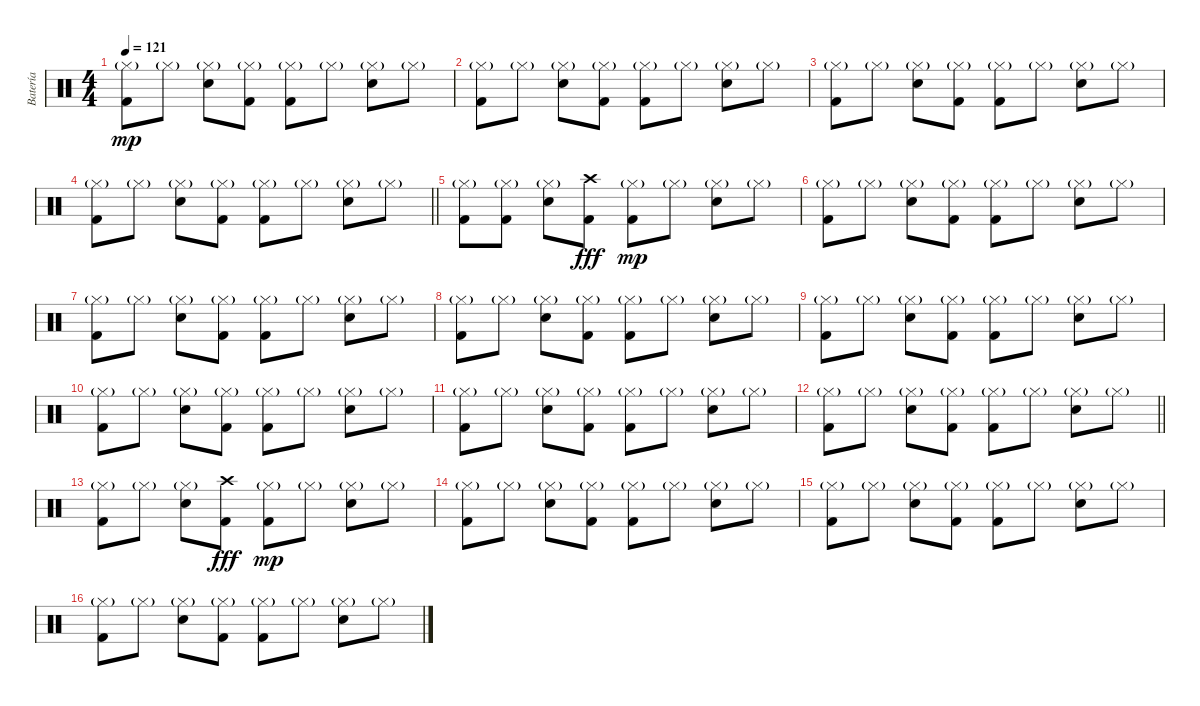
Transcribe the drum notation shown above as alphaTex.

\track ("Batería" "Batería") {instrument percussion}
\staff {score}
\articulation defaults
\ts (4 4)
\tempo 121
\clef neutral
\ks c
("Kick (hit) 2" "Hi-Hat (closed)"{g}).8{dy mp} "Hi-Hat (closed)"{g}.8 ("Snare (hit) 2" "Hi-Hat (closed)"{g}).8 ("Kick (hit) 2" "Hi-Hat (closed)"{g}).8 ("Kick (hit) 2" "Hi-Hat (closed)"{g}).8 "Hi-Hat (closed)"{g}.8 ("Snare (hit) 2" "Hi-Hat (closed)"{g}).8 "Hi-Hat (closed)"{g}.8 |
("Kick (hit) 2" "Hi-Hat (closed)"{g}).8 "Hi-Hat (closed)"{g}.8 ("Snare (hit) 2" "Hi-Hat (closed)"{g}).8 ("Kick (hit) 2" "Hi-Hat (closed)"{g}).8 ("Kick (hit) 2" "Hi-Hat (closed)"{g}).8 "Hi-Hat (closed)"{g}.8 ("Snare (hit) 2" "Hi-Hat (closed)"{g}).8 "Hi-Hat (closed)"{g}.8 |
("Kick (hit) 2" "Hi-Hat (closed)"{g}).8 "Hi-Hat (closed)"{g}.8 ("Snare (hit) 2" "Hi-Hat (closed)"{g}).8 ("Kick (hit) 2" "Hi-Hat (closed)"{g}).8 ("Kick (hit) 2" "Hi-Hat (closed)"{g}).8 "Hi-Hat (closed)"{g}.8 ("Snare (hit) 2" "Hi-Hat (closed)"{g}).8 "Hi-Hat (closed)"{g}.8 |
\barLineRight lightlight
("Kick (hit) 2" "Hi-Hat (closed)"{g}).8 "Hi-Hat (closed)"{g}.8 ("Snare (hit) 2" "Hi-Hat (closed)"{g}).8 ("Kick (hit) 2" "Hi-Hat (closed)"{g}).8 ("Kick (hit) 2" "Hi-Hat (closed)"{g}).8 "Hi-Hat (closed)"{g}.8 ("Snare (hit) 2" "Hi-Hat (closed)"{g}).8 "Hi-Hat (closed)"{g}.8 |
("Kick (hit) 2" "Hi-Hat (closed)"{g}).8 ("Kick (hit) 2" "Hi-Hat (closed)"{g}).8 ("Snare (hit) 2" "Hi-Hat (closed)"{g}).8 ("Kick (hit) 2" "Crash high (hit)").8{dy fff} ("Kick (hit) 2" "Hi-Hat (closed)"{g}).8{dy mp} "Hi-Hat (closed)"{g}.8 ("Snare (hit) 2" "Hi-Hat (closed)"{g}).8 "Hi-Hat (closed)"{g}.8 |
("Kick (hit) 2" "Hi-Hat (closed)"{g}).8 "Hi-Hat (closed)"{g}.8 ("Snare (hit) 2" "Hi-Hat (closed)"{g}).8 ("Kick (hit) 2" "Hi-Hat (closed)"{g}).8 ("Kick (hit) 2" "Hi-Hat (closed)"{g}).8 "Hi-Hat (closed)"{g}.8 ("Snare (hit) 2" "Hi-Hat (closed)"{g}).8 "Hi-Hat (closed)"{g}.8 |
("Kick (hit) 2" "Hi-Hat (closed)"{g}).8 "Hi-Hat (closed)"{g}.8 ("Snare (hit) 2" "Hi-Hat (closed)"{g}).8 ("Kick (hit) 2" "Hi-Hat (closed)"{g}).8 ("Kick (hit) 2" "Hi-Hat (closed)"{g}).8 "Hi-Hat (closed)"{g}.8 ("Snare (hit) 2" "Hi-Hat (closed)"{g}).8 "Hi-Hat (closed)"{g}.8 |
("Kick (hit) 2" "Hi-Hat (closed)"{g}).8 "Hi-Hat (closed)"{g}.8 ("Snare (hit) 2" "Hi-Hat (closed)"{g}).8 ("Kick (hit) 2" "Hi-Hat (closed)"{g}).8 ("Kick (hit) 2" "Hi-Hat (closed)"{g}).8 "Hi-Hat (closed)"{g}.8 ("Snare (hit) 2" "Hi-Hat (closed)"{g}).8 "Hi-Hat (closed)"{g}.8 |
("Kick (hit) 2" "Hi-Hat (closed)"{g}).8 "Hi-Hat (closed)"{g}.8 ("Snare (hit) 2" "Hi-Hat (closed)"{g}).8 ("Kick (hit) 2" "Hi-Hat (closed)"{g}).8 ("Kick (hit) 2" "Hi-Hat (closed)"{g}).8 "Hi-Hat (closed)"{g}.8 ("Snare (hit) 2" "Hi-Hat (closed)"{g}).8 "Hi-Hat (closed)"{g}.8 |
("Kick (hit) 2" "Hi-Hat (closed)"{g}).8 "Hi-Hat (closed)"{g}.8 ("Snare (hit) 2" "Hi-Hat (closed)"{g}).8 ("Kick (hit) 2" "Hi-Hat (closed)"{g}).8 ("Kick (hit) 2" "Hi-Hat (closed)"{g}).8 "Hi-Hat (closed)"{g}.8 ("Snare (hit) 2" "Hi-Hat (closed)"{g}).8 "Hi-Hat (closed)"{g}.8 |
("Kick (hit) 2" "Hi-Hat (closed)"{g}).8 "Hi-Hat (closed)"{g}.8 ("Snare (hit) 2" "Hi-Hat (closed)"{g}).8 ("Kick (hit) 2" "Hi-Hat (closed)"{g}).8 ("Kick (hit) 2" "Hi-Hat (closed)"{g}).8 "Hi-Hat (closed)"{g}.8 ("Snare (hit) 2" "Hi-Hat (closed)"{g}).8 "Hi-Hat (closed)"{g}.8 |
\barLineRight lightlight
("Kick (hit) 2" "Hi-Hat (closed)"{g}).8 "Hi-Hat (closed)"{g}.8 ("Snare (hit) 2" "Hi-Hat (closed)"{g}).8 ("Kick (hit) 2" "Hi-Hat (closed)"{g}).8 ("Kick (hit) 2" "Hi-Hat (closed)"{g}).8 "Hi-Hat (closed)"{g}.8 ("Snare (hit) 2" "Hi-Hat (closed)"{g}).8 "Hi-Hat (closed)"{g}.8 |
("Kick (hit) 2" "Hi-Hat (closed)"{g}).8 "Hi-Hat (closed)"{g}.8 ("Snare (hit) 2" "Hi-Hat (closed)"{g}).8 ("Kick (hit) 2" "Crash high (hit)").8{dy fff} ("Kick (hit) 2" "Hi-Hat (closed)"{g}).8{dy mp} "Hi-Hat (closed)"{g}.8 ("Snare (hit) 2" "Hi-Hat (closed)"{g}).8 "Hi-Hat (closed)"{g}.8 |
("Kick (hit) 2" "Hi-Hat (closed)"{g}).8 "Hi-Hat (closed)"{g}.8 ("Snare (hit) 2" "Hi-Hat (closed)"{g}).8 ("Kick (hit) 2" "Hi-Hat (closed)"{g}).8 ("Kick (hit) 2" "Hi-Hat (closed)"{g}).8 "Hi-Hat (closed)"{g}.8 ("Snare (hit) 2" "Hi-Hat (closed)"{g}).8 "Hi-Hat (closed)"{g}.8 |
("Kick (hit) 2" "Hi-Hat (closed)"{g}).8 "Hi-Hat (closed)"{g}.8 ("Snare (hit) 2" "Hi-Hat (closed)"{g}).8 ("Kick (hit) 2" "Hi-Hat (closed)"{g}).8 ("Kick (hit) 2" "Hi-Hat (closed)"{g}).8 "Hi-Hat (closed)"{g}.8 ("Snare (hit) 2" "Hi-Hat (closed)"{g}).8 "Hi-Hat (closed)"{g}.8 |
("Kick (hit) 2" "Hi-Hat (closed)"{g}).8 "Hi-Hat (closed)"{g}.8 ("Snare (hit) 2" "Hi-Hat (closed)"{g}).8 ("Kick (hit) 2" "Hi-Hat (closed)"{g}).8 ("Kick (hit) 2" "Hi-Hat (closed)"{g}).8 "Hi-Hat (closed)"{g}.8 ("Snare (hit) 2" "Hi-Hat (closed)"{g}).8 "Hi-Hat (closed)"{g}.8
